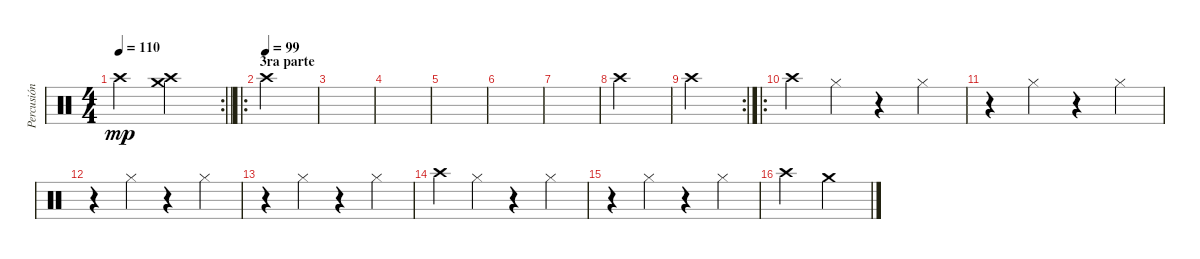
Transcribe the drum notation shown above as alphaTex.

\track ("Percusión" "Percusión") {instrument percussion}
\staff {score}
\articulation defaults
\rc 2
\ts (4 4)
\tempo 110
\clef neutral
\barLineRight lightlight
\ks c "Crash high (hit)".2{dy mp}
("Crash medium (hit)" "Crash high (hit)").2 |
\ro
\section ("" "3ra parte")
\tempo (99)
"Crash high (hit)".2 |
|
|
|
|
|
"Crash high (hit)".2 |
\rc 2 "Crash high (hit)".2
|
\ro "Crash high (hit)".4 "Hi-Hat (closed)".4
r.4 "Hi-Hat (closed)".4 |
r.4 "Hi-Hat (closed)".4 r.4 "Hi-Hat (closed)".4 |
r.4 "Hi-Hat (closed)".4 r.4 "Hi-Hat (closed)".4 |
r.4 "Hi-Hat (closed)".4 r.4 "Hi-Hat (closed)".4 |
"Crash high (hit)".4 "Hi-Hat (closed)".4 r.4 "Hi-Hat (closed)".4 |
r.4 "Hi-Hat (closed)".4 r.4 "Hi-Hat (closed)".4 |
"Crash high (hit)".2 "Crash medium (hit)".2
